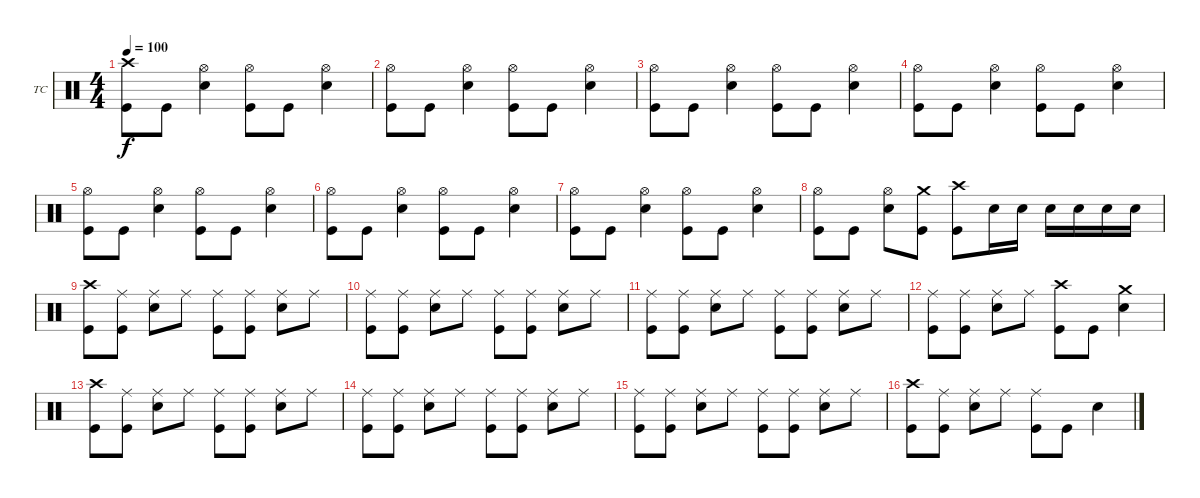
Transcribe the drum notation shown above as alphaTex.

\defaultSystemsLayout 4
\bracketExtendMode groupsimilarinstruments
\firstSystemTrackNameOrientation horizontal
\otherSystemsTrackNameOrientation horizontal
\track ("Drums - Tre Cool" "TC") {instrument percussion}
\staff {score}
\articulation defaults
\ts (4 4)
\tempo 100
\clef neutral
\ks c
("Crash high (hit)" "Kick (hit)").8{dy f} "Kick (hit)".8 ("Hi-Hat (open)" "Snare (hit) 2").4 ("Hi-Hat (open)" "Kick (hit)").8 "Kick (hit)".8 ("Hi-Hat (open)" "Snare (hit) 2").4 |
("Hi-Hat (open)" "Kick (hit)").8 "Kick (hit)".8 ("Hi-Hat (open)" "Snare (hit) 2").4 ("Hi-Hat (open)" "Kick (hit)").8 "Kick (hit)".8 ("Hi-Hat (open)" "Snare (hit) 2").4 |
("Hi-Hat (open)" "Kick (hit)").8 "Kick (hit)".8 ("Hi-Hat (open)" "Snare (hit) 2").4 ("Hi-Hat (open)" "Kick (hit)").8 "Kick (hit)".8 ("Hi-Hat (open)" "Snare (hit) 2").4 |
("Hi-Hat (open)" "Kick (hit)").8 "Kick (hit)".8 ("Hi-Hat (open)" "Snare (hit) 2").4 ("Hi-Hat (open)" "Kick (hit)").8 "Kick (hit)".8 ("Hi-Hat (open)" "Snare (hit) 2").4 |
("Hi-Hat (open)" "Kick (hit)").8 "Kick (hit)".8 ("Hi-Hat (open)" "Snare (hit) 2").4 ("Hi-Hat (open)" "Kick (hit)").8 "Kick (hit)".8 ("Hi-Hat (open)" "Snare (hit) 2").4 |
("Hi-Hat (open)" "Kick (hit)").8 "Kick (hit)".8 ("Hi-Hat (open)" "Snare (hit) 2").4 ("Hi-Hat (open)" "Kick (hit)").8 "Kick (hit)".8 ("Hi-Hat (open)" "Snare (hit) 2").4 |
("Hi-Hat (open)" "Kick (hit)").8 "Kick (hit)".8 ("Hi-Hat (open)" "Snare (hit) 2").4 ("Hi-Hat (open)" "Kick (hit)").8 "Kick (hit)".8 ("Hi-Hat (open)" "Snare (hit) 2").4 |
("Hi-Hat (open)" "Kick (hit)").8 "Kick (hit)".8 ("Hi-Hat (open)" "Snare (hit) 2").8 ("Crash medium (hit)" "Kick (hit)").8 ("Crash high (hit)" "Kick (hit)").8 "Snare (hit) 2".16 "Snare (hit) 2".16 "Snare (hit) 2".16 "Snare (hit) 2".16 "Snare (hit) 2".16 "Snare (hit) 2".16 |
("Crash high (hit)" "Kick (hit)").8 ("Ride (middle)" "Kick (hit)").8 ("Ride (middle)" "Snare (hit) 2").8 "Ride (middle)".8 ("Ride (middle)" "Kick (hit)").8 ("Ride (middle)" "Kick (hit)").8 ("Ride (middle)" "Snare (hit) 2").8 "Ride (middle)".8 |
("Ride (middle)" "Kick (hit)").8 ("Ride (middle)" "Kick (hit)").8 ("Ride (middle)" "Snare (hit) 2").8 "Ride (middle)".8 ("Ride (middle)" "Kick (hit)").8 ("Ride (middle)" "Kick (hit)").8 ("Ride (middle)" "Snare (hit) 2").8 "Ride (middle)".8 |
("Ride (middle)" "Kick (hit)").8 ("Ride (middle)" "Kick (hit)").8 ("Ride (middle)" "Snare (hit) 2").8 "Ride (middle)".8 ("Ride (middle)" "Kick (hit)").8 ("Ride (middle)" "Kick (hit)").8 ("Ride (middle)" "Snare (hit) 2").8 "Ride (middle)".8 |
("Ride (middle)" "Kick (hit)").8 ("Ride (middle)" "Kick (hit)").8 ("Ride (middle)" "Snare (hit) 2").8 "Ride (middle)".8 ("Crash high (hit)" "Kick (hit)").8 "Kick (hit)".8 ("Crash medium (hit)" "Snare (hit) 2").4 |
("Crash high (hit)" "Kick (hit)").8 ("Ride (middle)" "Kick (hit)").8 ("Ride (middle)" "Snare (hit) 2").8 "Ride (middle)".8 ("Ride (middle)" "Kick (hit)").8 ("Ride (middle)" "Kick (hit)").8 ("Ride (middle)" "Snare (hit) 2").8 "Ride (middle)".8 |
("Ride (middle)" "Kick (hit)").8 ("Ride (middle)" "Kick (hit)").8 ("Ride (middle)" "Snare (hit) 2").8 "Ride (middle)".8 ("Ride (middle)" "Kick (hit)").8 ("Ride (middle)" "Kick (hit)").8 ("Ride (middle)" "Snare (hit) 2").8 "Ride (middle)".8 |
("Ride (middle)" "Kick (hit)").8 ("Ride (middle)" "Kick (hit)").8 ("Ride (middle)" "Snare (hit) 2").8 "Ride (middle)".8 ("Ride (middle)" "Kick (hit)").8 ("Ride (middle)" "Kick (hit)").8 ("Ride (middle)" "Snare (hit) 2").8 "Ride (middle)".8 |
("Crash high (hit)" "Kick (hit)").8 ("Ride (middle)" "Kick (hit)").8 ("Ride (middle)" "Snare (hit) 2").8 "Ride (middle)".8 ("Ride (middle)" "Kick (hit)").8 "Kick (hit)".8 "Snare (hit) 2".4
